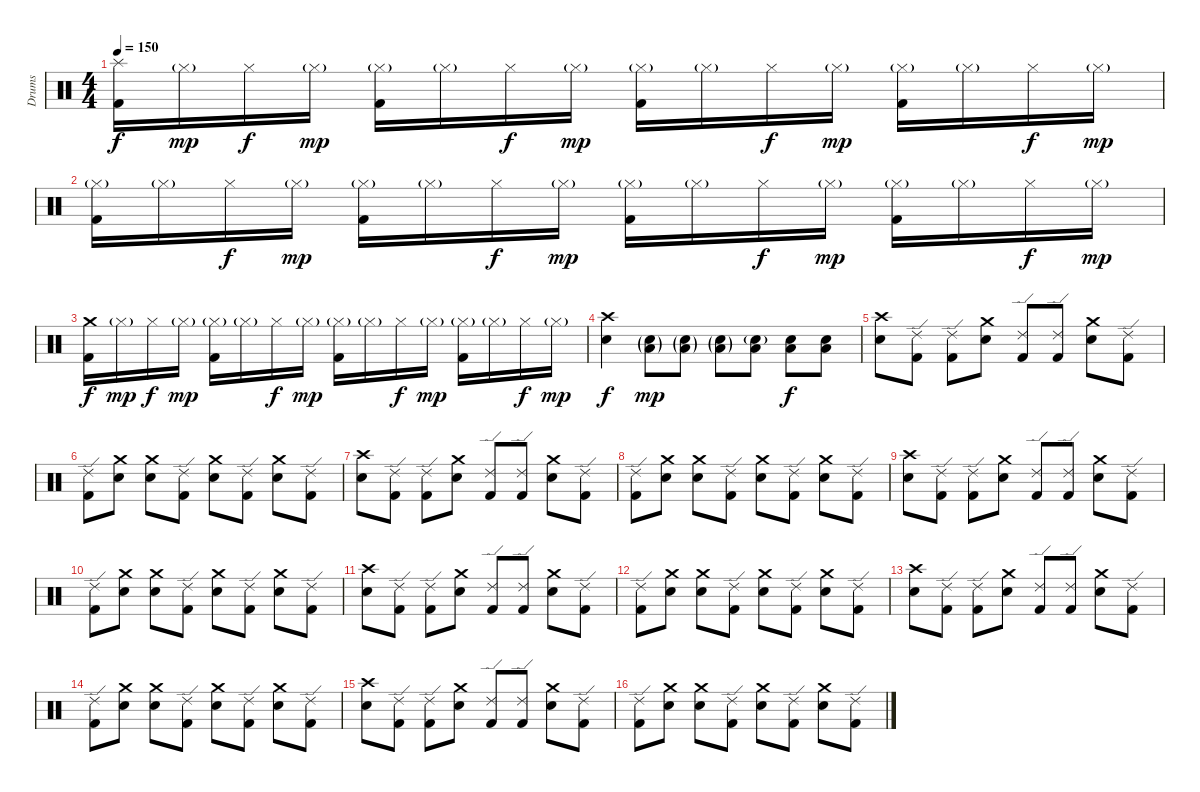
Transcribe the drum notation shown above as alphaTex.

\track ("Drums" "Drums") {instrument percussion}
\staff {score}
\articulation defaults
\ts (4 4)
\tempo 150
\clef neutral
\ks c
("Splash (hit)" "Kick (hit) 2").16{dy f} "Hi-Hat (closed)"{g}.16{dy mp} "Hi-Hat (closed)".16{dy f} "Hi-Hat (closed)"{g}.16{dy mp} ("Hi-Hat (closed)"{g} "Kick (hit) 2").16 "Hi-Hat (closed)"{g}.16 "Hi-Hat (closed)".16{dy f} "Hi-Hat (closed)"{g}.16{dy mp} ("Hi-Hat (closed)"{g} "Kick (hit) 2").16 "Hi-Hat (closed)"{g}.16 "Hi-Hat (closed)".16{dy f} "Hi-Hat (closed)"{g}.16{dy mp} ("Hi-Hat (closed)"{g} "Kick (hit) 2").16 "Hi-Hat (closed)"{g}.16 "Hi-Hat (closed)".16{dy f} "Hi-Hat (closed)"{g}.16{dy mp} |
("Hi-Hat (closed)"{g} "Kick (hit) 2").16 "Hi-Hat (closed)"{g}.16 "Hi-Hat (closed)".16{dy f} "Hi-Hat (closed)"{g}.16{dy mp} ("Hi-Hat (closed)"{g} "Kick (hit) 2").16 "Hi-Hat (closed)"{g}.16 "Hi-Hat (closed)".16{dy f} "Hi-Hat (closed)"{g}.16{dy mp} ("Hi-Hat (closed)"{g} "Kick (hit) 2").16 "Hi-Hat (closed)"{g}.16 "Hi-Hat (closed)".16{dy f} "Hi-Hat (closed)"{g}.16{dy mp} ("Hi-Hat (closed)"{g} "Kick (hit) 2").16 "Hi-Hat (closed)"{g}.16 "Hi-Hat (closed)".16{dy f} "Hi-Hat (closed)"{g}.16{dy mp} |
("Crash medium (hit)" "Kick (hit) 2").16{dy f} "Hi-Hat (closed)"{g}.16{dy mp} "Hi-Hat (closed)".16{dy f} "Hi-Hat (closed)"{g}.16{dy mp} ("Hi-Hat (closed)"{g} "Kick (hit) 2").16 "Hi-Hat (closed)"{g}.16 "Hi-Hat (closed)".16{dy f} "Hi-Hat (closed)"{g}.16{dy mp} ("Hi-Hat (closed)"{g} "Kick (hit) 2").16 "Hi-Hat (closed)"{g}.16 "Hi-Hat (closed)".16{dy f} "Hi-Hat (closed)"{g}.16{dy mp} ("Hi-Hat (closed)"{g} "Kick (hit) 2").16 "Hi-Hat (closed)"{g}.16 "Hi-Hat (closed)".16{dy f} "Hi-Hat (closed)"{g}.16{dy mp} |
("Crash high (hit)" "Electric Snare (hit)").4{dy f} ("Low Floor Tom (hit)"{g} "Electric Snare (hit)"{g}).8{dy mp} ("Low Floor Tom (hit)"{g} "Electric Snare (hit)"{g}).8 ("Low Floor Tom (hit)"{g} "Electric Snare (hit)"{g}).8 ("Low Floor Tom (hit)" "Electric Snare (hit)"{g}).8 ("Low Floor Tom (hit)" "Electric Snare (hit)").8{dy f} ("Low Floor Tom (hit)" "Electric Snare (hit)").8 |
("Crash high (hit)" "Electric Snare (hit)").8 ("Ride (edge) 2" "Kick (hit) 2").8 ("Ride (edge) 2" "Kick (hit) 2").8 ("Crash medium (hit)" "Electric Snare (hit)").8 ("Ride (edge) 2" "Kick (hit) 2").8 ("Ride (edge) 2" "Kick (hit) 2").8 ("Crash medium (hit)" "Electric Snare (hit)").8 ("Ride (edge) 2" "Kick (hit) 2").8 |
("Ride (edge) 2" "Kick (hit) 2").8 ("Crash medium (hit)" "Electric Snare (hit)").8 ("Crash medium (hit)" "Electric Snare (hit)").8 ("Ride (edge) 2" "Kick (hit) 2").8 ("Crash medium (hit)" "Electric Snare (hit)").8 ("Ride (edge) 2" "Kick (hit) 2").8 ("Crash medium (hit)" "Electric Snare (hit)").8 ("Ride (edge) 2" "Kick (hit) 2").8 |
("Crash high (hit)" "Electric Snare (hit)").8 ("Ride (edge) 2" "Kick (hit) 2").8 ("Ride (edge) 2" "Kick (hit) 2").8 ("Crash medium (hit)" "Electric Snare (hit)").8 ("Ride (edge) 2" "Kick (hit) 2").8 ("Ride (edge) 2" "Kick (hit) 2").8 ("Crash medium (hit)" "Electric Snare (hit)").8 ("Ride (edge) 2" "Kick (hit) 2").8 |
("Ride (edge) 2" "Kick (hit) 2").8 ("Crash medium (hit)" "Electric Snare (hit)").8 ("Crash medium (hit)" "Electric Snare (hit)").8 ("Ride (edge) 2" "Kick (hit) 2").8 ("Crash medium (hit)" "Electric Snare (hit)").8 ("Ride (edge) 2" "Kick (hit) 2").8 ("Crash medium (hit)" "Electric Snare (hit)").8 ("Ride (edge) 2" "Kick (hit) 2").8 |
("Crash high (hit)" "Electric Snare (hit)").8 ("Ride (edge) 2" "Kick (hit) 2").8 ("Ride (edge) 2" "Kick (hit) 2").8 ("Crash medium (hit)" "Electric Snare (hit)").8 ("Ride (edge) 2" "Kick (hit) 2").8 ("Ride (edge) 2" "Kick (hit) 2").8 ("Crash medium (hit)" "Electric Snare (hit)").8 ("Ride (edge) 2" "Kick (hit) 2").8 |
("Ride (edge) 2" "Kick (hit) 2").8 ("Crash medium (hit)" "Electric Snare (hit)").8 ("Crash medium (hit)" "Electric Snare (hit)").8 ("Ride (edge) 2" "Kick (hit) 2").8 ("Crash medium (hit)" "Electric Snare (hit)").8 ("Ride (edge) 2" "Kick (hit) 2").8 ("Crash medium (hit)" "Electric Snare (hit)").8 ("Ride (edge) 2" "Kick (hit) 2").8 |
("Crash high (hit)" "Electric Snare (hit)").8 ("Ride (edge) 2" "Kick (hit) 2").8 ("Ride (edge) 2" "Kick (hit) 2").8 ("Crash medium (hit)" "Electric Snare (hit)").8 ("Ride (edge) 2" "Kick (hit) 2").8 ("Ride (edge) 2" "Kick (hit) 2").8 ("Crash medium (hit)" "Electric Snare (hit)").8 ("Ride (edge) 2" "Kick (hit) 2").8 |
("Ride (edge) 2" "Kick (hit) 2").8 ("Crash medium (hit)" "Electric Snare (hit)").8 ("Crash medium (hit)" "Electric Snare (hit)").8 ("Ride (edge) 2" "Kick (hit) 2").8 ("Crash medium (hit)" "Electric Snare (hit)").8 ("Ride (edge) 2" "Kick (hit) 2").8 ("Crash medium (hit)" "Electric Snare (hit)").8 ("Ride (edge) 2" "Kick (hit) 2").8 |
("Crash high (hit)" "Electric Snare (hit)").8 ("Ride (edge) 2" "Kick (hit) 2").8 ("Ride (edge) 2" "Kick (hit) 2").8 ("Crash medium (hit)" "Electric Snare (hit)").8 ("Ride (edge) 2" "Kick (hit) 2").8 ("Ride (edge) 2" "Kick (hit) 2").8 ("Crash medium (hit)" "Electric Snare (hit)").8 ("Ride (edge) 2" "Kick (hit) 2").8 |
("Ride (edge) 2" "Kick (hit) 2").8 ("Crash medium (hit)" "Electric Snare (hit)").8 ("Crash medium (hit)" "Electric Snare (hit)").8 ("Ride (edge) 2" "Kick (hit) 2").8 ("Crash medium (hit)" "Electric Snare (hit)").8 ("Ride (edge) 2" "Kick (hit) 2").8 ("Crash medium (hit)" "Electric Snare (hit)").8 ("Ride (edge) 2" "Kick (hit) 2").8 |
("Crash high (hit)" "Electric Snare (hit)").8 ("Ride (edge) 2" "Kick (hit) 2").8 ("Ride (edge) 2" "Kick (hit) 2").8 ("Crash medium (hit)" "Electric Snare (hit)").8 ("Ride (edge) 2" "Kick (hit) 2").8 ("Ride (edge) 2" "Kick (hit) 2").8 ("Crash medium (hit)" "Electric Snare (hit)").8 ("Ride (edge) 2" "Kick (hit) 2").8 |
("Ride (edge) 2" "Kick (hit) 2").8 ("Crash medium (hit)" "Electric Snare (hit)").8 ("Crash medium (hit)" "Electric Snare (hit)").8 ("Ride (edge) 2" "Kick (hit) 2").8 ("Crash medium (hit)" "Electric Snare (hit)").8 ("Ride (edge) 2" "Kick (hit) 2").8 ("Crash medium (hit)" "Electric Snare (hit)").8 ("Ride (edge) 2" "Kick (hit) 2").8
